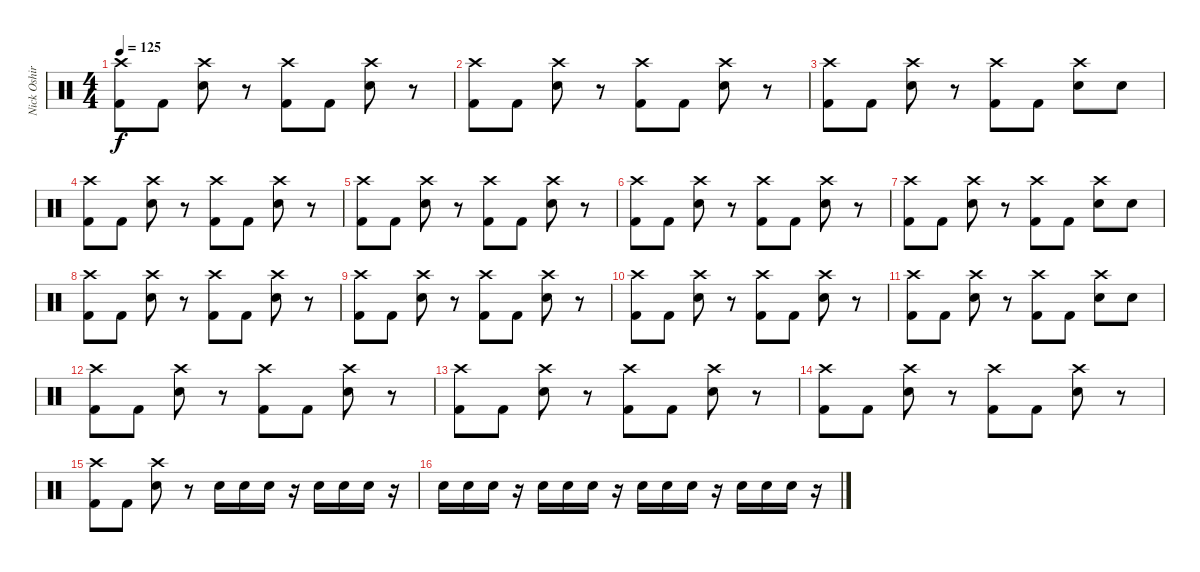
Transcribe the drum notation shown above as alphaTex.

\track ("Nick Oshiro" "Nick Oshir") {instrument percussion}
\staff {score}
\articulation defaults
\ts (4 4)
\tempo 125
\clef neutral
\ks c
("Crash high (hit)" "Kick (hit) 2").8{dy f} "Kick (hit) 2".8 ("Crash high (hit)" "Electric Snare (hit)").8 r.8 ("Crash high (hit)" "Kick (hit) 2").8 "Kick (hit) 2".8 ("Crash high (hit)" "Electric Snare (hit)").8 r.8 |
("Crash high (hit)" "Kick (hit) 2").8 "Kick (hit) 2".8 ("Crash high (hit)" "Electric Snare (hit)").8 r.8 ("Crash high (hit)" "Kick (hit) 2").8 "Kick (hit) 2".8 ("Crash high (hit)" "Electric Snare (hit)").8 r.8 |
("Crash high (hit)" "Kick (hit) 2").8 "Kick (hit) 2".8 ("Crash high (hit)" "Electric Snare (hit)").8 r.8 ("Crash high (hit)" "Kick (hit) 2").8 "Kick (hit) 2".8 ("Crash high (hit)" "Electric Snare (hit)").8 "Electric Snare (hit)".8 |
("Crash high (hit)" "Kick (hit) 2").8 "Kick (hit) 2".8 ("Crash high (hit)" "Electric Snare (hit)").8 r.8 ("Crash high (hit)" "Kick (hit) 2").8 "Kick (hit) 2".8 ("Crash high (hit)" "Electric Snare (hit)").8 r.8 |
("Crash high (hit)" "Kick (hit) 2").8 "Kick (hit) 2".8 ("Crash high (hit)" "Electric Snare (hit)").8 r.8 ("Crash high (hit)" "Kick (hit) 2").8 "Kick (hit) 2".8 ("Crash high (hit)" "Electric Snare (hit)").8 r.8 |
("Crash high (hit)" "Kick (hit) 2").8 "Kick (hit) 2".8 ("Crash high (hit)" "Electric Snare (hit)").8 r.8 ("Crash high (hit)" "Kick (hit) 2").8 "Kick (hit) 2".8 ("Crash high (hit)" "Electric Snare (hit)").8 r.8 |
("Crash high (hit)" "Kick (hit) 2").8 "Kick (hit) 2".8 ("Crash high (hit)" "Electric Snare (hit)").8 r.8 ("Crash high (hit)" "Kick (hit) 2").8 "Kick (hit) 2".8 ("Crash high (hit)" "Electric Snare (hit)").8 "Electric Snare (hit)".8 |
("Crash high (hit)" "Kick (hit) 2").8 "Kick (hit) 2".8 ("Crash high (hit)" "Electric Snare (hit)").8 r.8 ("Crash high (hit)" "Kick (hit) 2").8 "Kick (hit) 2".8 ("Crash high (hit)" "Electric Snare (hit)").8 r.8 |
("Crash high (hit)" "Kick (hit) 2").8 "Kick (hit) 2".8 ("Crash high (hit)" "Electric Snare (hit)").8 r.8 ("Crash high (hit)" "Kick (hit) 2").8 "Kick (hit) 2".8 ("Crash high (hit)" "Electric Snare (hit)").8 r.8 |
("Crash high (hit)" "Kick (hit) 2").8 "Kick (hit) 2".8 ("Crash high (hit)" "Electric Snare (hit)").8 r.8 ("Crash high (hit)" "Kick (hit) 2").8 "Kick (hit) 2".8 ("Crash high (hit)" "Electric Snare (hit)").8 r.8 |
("Crash high (hit)" "Kick (hit) 2").8 "Kick (hit) 2".8 ("Crash high (hit)" "Electric Snare (hit)").8 r.8 ("Crash high (hit)" "Kick (hit) 2").8 "Kick (hit) 2".8 ("Crash high (hit)" "Electric Snare (hit)").8 "Electric Snare (hit)".8 |
("Crash high (hit)" "Kick (hit) 2").8 "Kick (hit) 2".8 ("Crash high (hit)" "Electric Snare (hit)").8 r.8 ("Crash high (hit)" "Kick (hit) 2").8 "Kick (hit) 2".8 ("Crash high (hit)" "Electric Snare (hit)").8 r.8 |
("Crash high (hit)" "Kick (hit) 2").8 "Kick (hit) 2".8 ("Crash high (hit)" "Electric Snare (hit)").8 r.8 ("Crash high (hit)" "Kick (hit) 2").8 "Kick (hit) 2".8 ("Crash high (hit)" "Electric Snare (hit)").8 r.8 |
("Crash high (hit)" "Kick (hit) 2").8 "Kick (hit) 2".8 ("Crash high (hit)" "Electric Snare (hit)").8 r.8 ("Crash high (hit)" "Kick (hit) 2").8 "Kick (hit) 2".8 ("Crash high (hit)" "Electric Snare (hit)").8 r.8 |
("Crash high (hit)" "Kick (hit) 2").8 "Kick (hit) 2".8 ("Crash high (hit)" "Electric Snare (hit)").8 r.8 "Electric Snare (hit)".16 "Electric Snare (hit)".16 "Electric Snare (hit)".16 r.16 "Electric Snare (hit)".16 "Electric Snare (hit)".16 "Electric Snare (hit)".16 r.16 |
"Electric Snare (hit)".16 "Electric Snare (hit)".16 "Electric Snare (hit)".16 r.16 "Electric Snare (hit)".16 "Electric Snare (hit)".16 "Electric Snare (hit)".16 r.16 "Electric Snare (hit)".16 "Electric Snare (hit)".16 "Electric Snare (hit)".16 r.16 "Electric Snare (hit)".16 "Electric Snare (hit)".16 "Electric Snare (hit)".16 r.16
